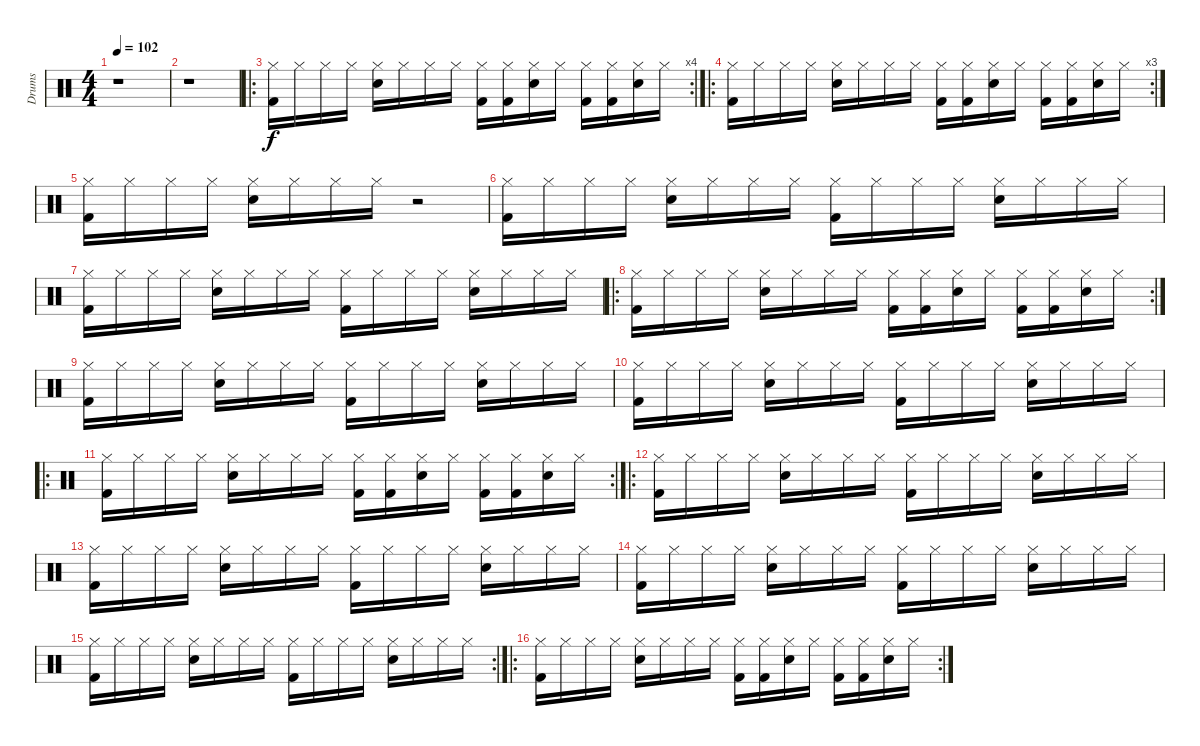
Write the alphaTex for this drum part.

\track ("Drums" "Drums") {instrument percussion}
\staff {score}
\articulation defaults
\ts (4 4)
\tempo 102
\clef neutral
\ks c
r.1{dy f} |
r.1 |
\ro
\rc 4
("Hi-Hat (closed)" "Kick (hit) 2").16 "Hi-Hat (closed)".16 "Hi-Hat (closed)".16 "Hi-Hat (closed)".16 ("Hi-Hat (closed)" "Electric Snare (hit)").16 "Hi-Hat (closed)".16 "Hi-Hat (closed)".16 "Hi-Hat (closed)".16 ("Hi-Hat (closed)" "Kick (hit) 2").16 ("Hi-Hat (closed)" "Kick (hit) 2").16 ("Hi-Hat (closed)" "Electric Snare (hit)").16 "Hi-Hat (closed)".16 ("Hi-Hat (closed)" "Kick (hit) 2").16 ("Hi-Hat (closed)" "Kick (hit) 2").16 ("Hi-Hat (closed)" "Electric Snare (hit)").16 "Hi-Hat (closed)".16 |
\ro
\rc 3
("Hi-Hat (closed)" "Kick (hit) 2").16 "Hi-Hat (closed)".16 "Hi-Hat (closed)".16 "Hi-Hat (closed)".16 ("Hi-Hat (closed)" "Electric Snare (hit)").16 "Hi-Hat (closed)".16 "Hi-Hat (closed)".16 "Hi-Hat (closed)".16 ("Hi-Hat (closed)" "Kick (hit) 2").16 ("Hi-Hat (closed)" "Kick (hit) 2").16 ("Hi-Hat (closed)" "Electric Snare (hit)").16 "Hi-Hat (closed)".16 ("Hi-Hat (closed)" "Kick (hit) 2").16 ("Hi-Hat (closed)" "Kick (hit) 2").16 ("Hi-Hat (closed)" "Electric Snare (hit)").16 "Hi-Hat (closed)".16 |
("Hi-Hat (closed)" "Kick (hit) 2").16 "Hi-Hat (closed)".16 "Hi-Hat (closed)".16 "Hi-Hat (closed)".16 ("Hi-Hat (closed)" "Electric Snare (hit)").16 "Hi-Hat (closed)".16 "Hi-Hat (closed)".16 "Hi-Hat (closed)".16 r.2 |
("Hi-Hat (closed)" "Kick (hit) 2").16 "Hi-Hat (closed)".16 "Hi-Hat (closed)".16 "Hi-Hat (closed)".16 ("Hi-Hat (closed)" "Electric Snare (hit)").16 "Hi-Hat (closed)".16 "Hi-Hat (closed)".16 "Hi-Hat (closed)".16 ("Hi-Hat (closed)" "Kick (hit) 2").16 "Hi-Hat (closed)".16 "Hi-Hat (closed)".16 "Hi-Hat (closed)".16 ("Hi-Hat (closed)" "Electric Snare (hit)").16 "Hi-Hat (closed)".16 "Hi-Hat (closed)".16 "Hi-Hat (closed)".16 |
("Hi-Hat (closed)" "Kick (hit) 2").16 "Hi-Hat (closed)".16 "Hi-Hat (closed)".16 "Hi-Hat (closed)".16 ("Hi-Hat (closed)" "Electric Snare (hit)").16 "Hi-Hat (closed)".16 "Hi-Hat (closed)".16 "Hi-Hat (closed)".16 ("Hi-Hat (closed)" "Kick (hit) 2").16 "Hi-Hat (closed)".16 "Hi-Hat (closed)".16 "Hi-Hat (closed)".16 ("Hi-Hat (closed)" "Electric Snare (hit)").16 "Hi-Hat (closed)".16 "Hi-Hat (closed)".16 "Hi-Hat (closed)".16 |
\ro
\rc 2
("Hi-Hat (closed)" "Kick (hit) 2").16 "Hi-Hat (closed)".16 "Hi-Hat (closed)".16 "Hi-Hat (closed)".16 ("Hi-Hat (closed)" "Electric Snare (hit)").16 "Hi-Hat (closed)".16 "Hi-Hat (closed)".16 "Hi-Hat (closed)".16 ("Hi-Hat (closed)" "Kick (hit) 2").16 ("Hi-Hat (closed)" "Kick (hit) 2").16 ("Hi-Hat (closed)" "Electric Snare (hit)").16 "Hi-Hat (closed)".16 ("Hi-Hat (closed)" "Kick (hit) 2").16 ("Hi-Hat (closed)" "Kick (hit) 2").16 ("Hi-Hat (closed)" "Electric Snare (hit)").16 "Hi-Hat (closed)".16 |
("Hi-Hat (closed)" "Kick (hit) 2").16 "Hi-Hat (closed)".16 "Hi-Hat (closed)".16 "Hi-Hat (closed)".16 ("Hi-Hat (closed)" "Electric Snare (hit)").16 "Hi-Hat (closed)".16 "Hi-Hat (closed)".16 "Hi-Hat (closed)".16 ("Hi-Hat (closed)" "Kick (hit) 2").16 "Hi-Hat (closed)".16 "Hi-Hat (closed)".16 "Hi-Hat (closed)".16 ("Hi-Hat (closed)" "Electric Snare (hit)").16 "Hi-Hat (closed)".16 "Hi-Hat (closed)".16 "Hi-Hat (closed)".16 |
("Hi-Hat (closed)" "Kick (hit) 2").16 "Hi-Hat (closed)".16 "Hi-Hat (closed)".16 "Hi-Hat (closed)".16 ("Hi-Hat (closed)" "Electric Snare (hit)").16 "Hi-Hat (closed)".16 "Hi-Hat (closed)".16 "Hi-Hat (closed)".16 ("Hi-Hat (closed)" "Kick (hit) 2").16 "Hi-Hat (closed)".16 "Hi-Hat (closed)".16 "Hi-Hat (closed)".16 ("Hi-Hat (closed)" "Electric Snare (hit)").16 "Hi-Hat (closed)".16 "Hi-Hat (closed)".16 "Hi-Hat (closed)".16 |
\ro
\rc 2
("Hi-Hat (closed)" "Kick (hit) 2").16 "Hi-Hat (closed)".16 "Hi-Hat (closed)".16 "Hi-Hat (closed)".16 ("Hi-Hat (closed)" "Electric Snare (hit)").16 "Hi-Hat (closed)".16 "Hi-Hat (closed)".16 "Hi-Hat (closed)".16 ("Hi-Hat (closed)" "Kick (hit) 2").16 ("Hi-Hat (closed)" "Kick (hit) 2").16 ("Hi-Hat (closed)" "Electric Snare (hit)").16 "Hi-Hat (closed)".16 ("Hi-Hat (closed)" "Kick (hit) 2").16 ("Hi-Hat (closed)" "Kick (hit) 2").16 ("Hi-Hat (closed)" "Electric Snare (hit)").16 "Hi-Hat (closed)".16 |
\ro
("Hi-Hat (closed)" "Kick (hit) 2").16 "Hi-Hat (closed)".16 "Hi-Hat (closed)".16 "Hi-Hat (closed)".16 ("Hi-Hat (closed)" "Electric Snare (hit)").16 "Hi-Hat (closed)".16 "Hi-Hat (closed)".16 "Hi-Hat (closed)".16 ("Hi-Hat (closed)" "Kick (hit) 2").16 "Hi-Hat (closed)".16 "Hi-Hat (closed)".16 "Hi-Hat (closed)".16 ("Hi-Hat (closed)" "Electric Snare (hit)").16 "Hi-Hat (closed)".16 "Hi-Hat (closed)".16 "Hi-Hat (closed)".16 |
("Hi-Hat (closed)" "Kick (hit) 2").16 "Hi-Hat (closed)".16 "Hi-Hat (closed)".16 "Hi-Hat (closed)".16 ("Hi-Hat (closed)" "Electric Snare (hit)").16 "Hi-Hat (closed)".16 "Hi-Hat (closed)".16 "Hi-Hat (closed)".16 ("Hi-Hat (closed)" "Kick (hit) 2").16 "Hi-Hat (closed)".16 "Hi-Hat (closed)".16 "Hi-Hat (closed)".16 ("Hi-Hat (closed)" "Electric Snare (hit)").16 "Hi-Hat (closed)".16 "Hi-Hat (closed)".16 "Hi-Hat (closed)".16 |
("Hi-Hat (closed)" "Kick (hit) 2").16 "Hi-Hat (closed)".16 "Hi-Hat (closed)".16 "Hi-Hat (closed)".16 ("Hi-Hat (closed)" "Electric Snare (hit)").16 "Hi-Hat (closed)".16 "Hi-Hat (closed)".16 "Hi-Hat (closed)".16 ("Hi-Hat (closed)" "Kick (hit) 2").16 "Hi-Hat (closed)".16 "Hi-Hat (closed)".16 "Hi-Hat (closed)".16 ("Hi-Hat (closed)" "Electric Snare (hit)").16 "Hi-Hat (closed)".16 "Hi-Hat (closed)".16 "Hi-Hat (closed)".16 |
\rc 2
("Hi-Hat (closed)" "Kick (hit) 2").16 "Hi-Hat (closed)".16 "Hi-Hat (closed)".16 "Hi-Hat (closed)".16 ("Hi-Hat (closed)" "Electric Snare (hit)").16 "Hi-Hat (closed)".16 "Hi-Hat (closed)".16 "Hi-Hat (closed)".16 ("Hi-Hat (closed)" "Kick (hit) 2").16 "Hi-Hat (closed)".16 "Hi-Hat (closed)".16 "Hi-Hat (closed)".16 ("Hi-Hat (closed)" "Electric Snare (hit)").16 "Hi-Hat (closed)".16 "Hi-Hat (closed)".16 "Hi-Hat (closed)".16 |
\ro
\rc 2
("Hi-Hat (closed)" "Kick (hit) 2").16 "Hi-Hat (closed)".16 "Hi-Hat (closed)".16 "Hi-Hat (closed)".16 ("Hi-Hat (closed)" "Electric Snare (hit)").16 "Hi-Hat (closed)".16 "Hi-Hat (closed)".16 "Hi-Hat (closed)".16 ("Hi-Hat (closed)" "Kick (hit) 2").16 ("Hi-Hat (closed)" "Kick (hit) 2").16 ("Hi-Hat (closed)" "Electric Snare (hit)").16 "Hi-Hat (closed)".16 ("Hi-Hat (closed)" "Kick (hit) 2").16 ("Hi-Hat (closed)" "Kick (hit) 2").16 ("Hi-Hat (closed)" "Electric Snare (hit)").16 "Hi-Hat (closed)".16
